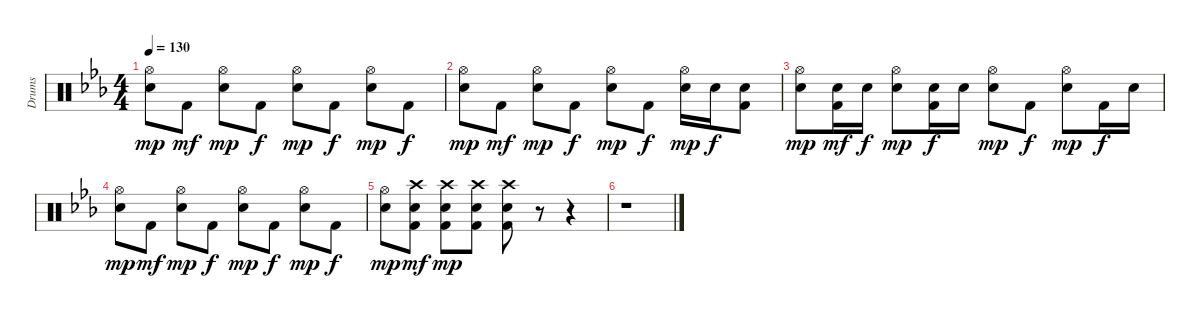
\track ("Drums" "Drums") {instrument percussion}
\staff {score}
\articulation defaults
\ts (4 4)
\tempo 130
\clef neutral
\ks eb
("Hi-Hat (open)" "Electric Snare (hit)").8{dy mp} "Kick (hit) 2".8{dy mf} ("Hi-Hat (open)" "Electric Snare (hit)").8{dy mp} "Kick (hit) 2".8{dy f} ("Hi-Hat (open)" "Electric Snare (hit)").8{dy mp} "Kick (hit) 2".8{dy f} ("Hi-Hat (open)" "Electric Snare (hit)").8{dy mp} "Kick (hit) 2".8{dy f} |
("Hi-Hat (open)" "Electric Snare (hit)").8{dy mp} "Kick (hit) 2".8{dy mf} ("Hi-Hat (open)" "Electric Snare (hit)").8{dy mp} "Kick (hit) 2".8{dy f} ("Hi-Hat (open)" "Electric Snare (hit)").8{dy mp} "Kick (hit) 2".8{dy f} ("Hi-Hat (open)" "Electric Snare (hit)").16{dy mp} "Electric Snare (hit)".16{dy f} ("Electric Snare (hit)" "Kick (hit) 2").8 |
("Hi-Hat (open)" "Electric Snare (hit)").8{dy mp} ("Electric Snare (hit)" "Kick (hit) 2").16{dy mf} "Electric Snare (hit)".16{dy f} ("Hi-Hat (open)" "Electric Snare (hit)").8{dy mp} ("Electric Snare (hit)" "Kick (hit) 2").16{dy f} "Electric Snare (hit)".16 ("Hi-Hat (open)" "Electric Snare (hit)").8{dy mp} "Kick (hit) 2".8{dy f} ("Hi-Hat (open)" "Electric Snare (hit)").8{dy mp} "Kick (hit) 2".16{dy f} "Electric Snare (hit)".16 |
("Hi-Hat (open)" "Electric Snare (hit)").8{dy mp} "Kick (hit) 2".8{dy mf} ("Hi-Hat (open)" "Electric Snare (hit)").8{dy mp} "Kick (hit) 2".8{dy f} ("Hi-Hat (open)" "Electric Snare (hit)").8{dy mp} "Kick (hit) 2".8{dy f} ("Hi-Hat (open)" "Electric Snare (hit)").8{dy mp} "Kick (hit) 2".8{dy f} |
("Hi-Hat (open)" "Electric Snare (hit)").8{dy mp} ("Crash high (hit)" "Electric Snare (hit)" "Kick (hit) 2").8{dy mf} ("Crash high (hit)" "Electric Snare (hit)" "Kick (hit) 2").8{dy mp} ("Crash high (hit)" "Electric Snare (hit)" "Kick (hit) 2").8 ("Crash high (hit)" "Electric Snare (hit)" "Kick (hit) 2").8 r.8 r.4 |
r.1
